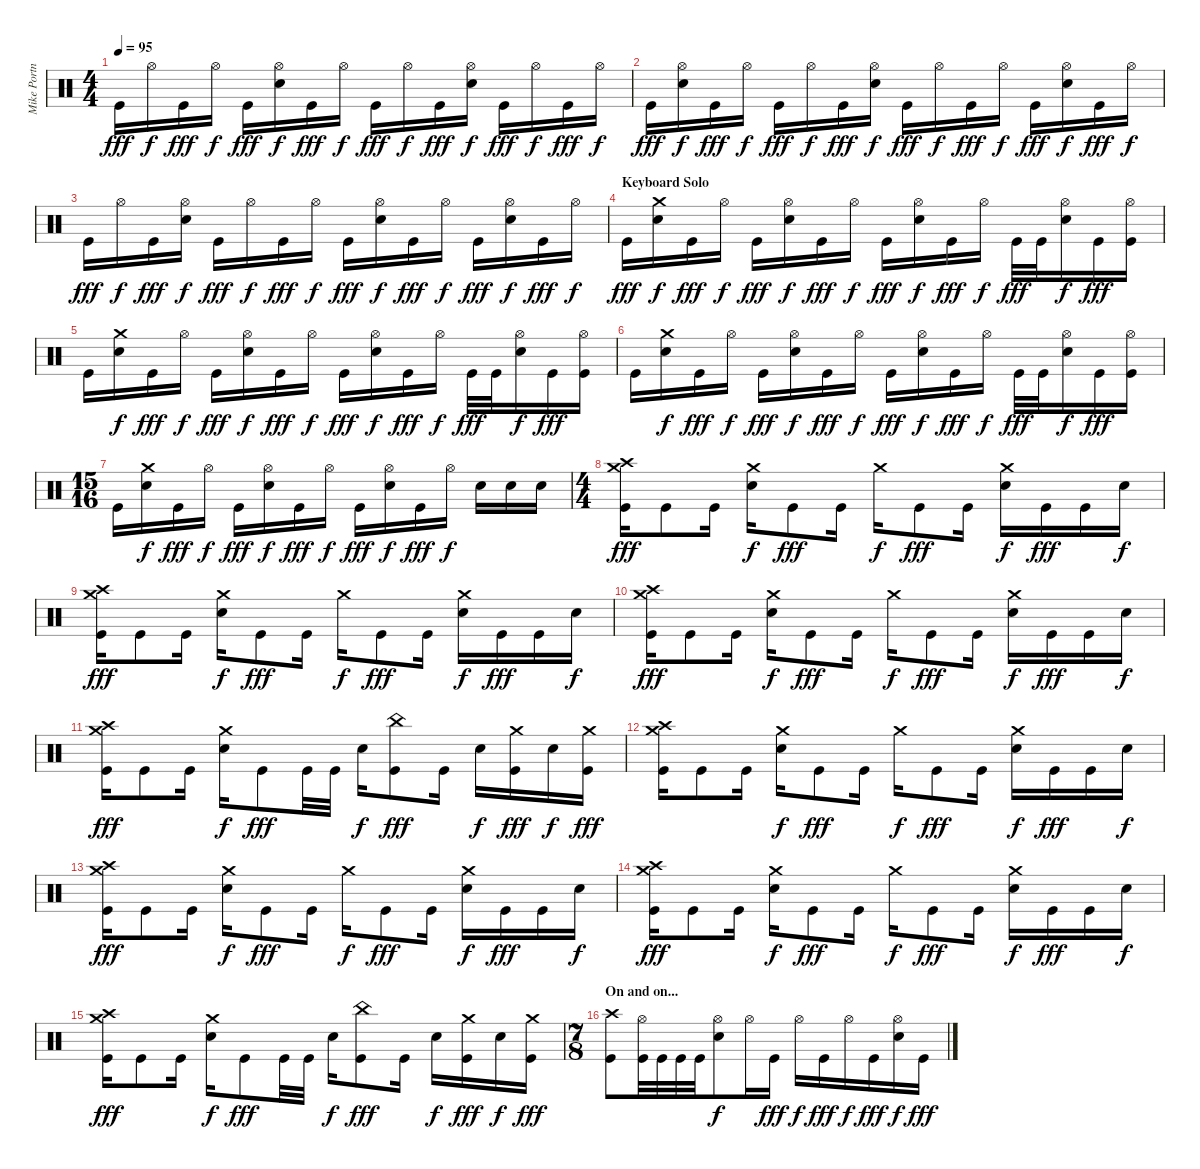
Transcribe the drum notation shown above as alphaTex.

\track ("Mike Portnoy" "Mike Portn") {instrument percussion}
\staff {score}
\articulation defaults
\ts (4 4)
\tempo 95
\clef neutral
\ks c "Kick (hit)".16{dy fff} "Hi-Hat (open)".16{dy f} "Kick (hit)".16{dy fff} "Hi-Hat (open)".16{dy f} "Kick (hit)".16{dy fff}
("Hi-Hat (open)" "Electric Snare (hit)").16{dy f} "Kick (hit)".16{dy fff} "Hi-Hat (open)".16{dy f} "Kick (hit)".16{dy fff} "Hi-Hat (open)".16{dy f} "Kick (hit)".16{dy fff} ("Hi-Hat (open)" "Electric Snare (hit)").16{dy f} "Kick (hit)".16{dy fff} "Hi-Hat (open)".16{dy f} "Kick (hit)".16{dy fff} "Hi-Hat (open)".16{dy f} |
"Kick (hit)".16{dy fff} ("Hi-Hat (open)" "Electric Snare (hit)").16{dy f} "Kick (hit)".16{dy fff} "Hi-Hat (open)".16{dy f} "Kick (hit)".16{dy fff} "Hi-Hat (open)".16{dy f} "Kick (hit)".16{dy fff} ("Hi-Hat (open)" "Electric Snare (hit)").16{dy f} "Kick (hit)".16{dy fff} "Hi-Hat (open)".16{dy f} "Kick (hit)".16{dy fff} "Hi-Hat (open)".16{dy f} "Kick (hit)".16{dy fff} ("Hi-Hat (open)" "Electric Snare (hit)").16{dy f} "Kick (hit)".16{dy fff} "Hi-Hat (open)".16{dy f} |
"Kick (hit)".16{dy fff} "Hi-Hat (open)".16{dy f} "Kick (hit)".16{dy fff} ("Hi-Hat (open)" "Electric Snare (hit)").16{dy f} "Kick (hit)".16{dy fff} "Hi-Hat (open)".16{dy f} "Kick (hit)".16{dy fff} "Hi-Hat (open)".16{dy f} "Kick (hit)".16{dy fff} ("Hi-Hat (open)" "Electric Snare (hit)").16{dy f} "Kick (hit)".16{dy fff} "Hi-Hat (open)".16{dy f} "Kick (hit)".16{dy fff} ("Hi-Hat (open)" "Electric Snare (hit)").16{dy f} "Kick (hit)".16{dy fff} "Hi-Hat (open)".16{dy f} |
\section ("" "Keyboard Solo")
"Kick (hit)".16{dy fff} ("Crash medium (hit)" "Electric Snare (hit)").16{dy f} "Kick (hit)".16{dy fff} "Hi-Hat (open)".16{dy f} "Kick (hit)".16{dy fff} ("Hi-Hat (open)" "Electric Snare (hit)").16{dy f} "Kick (hit)".16{dy fff} "Hi-Hat (open)".16{dy f} "Kick (hit)".16{dy fff} ("Hi-Hat (open)" "Electric Snare (hit)").16{dy f} "Kick (hit)".16{dy fff} "Hi-Hat (open)".16{dy f} "Kick (hit)".32{dy fff} "Kick (hit)".32 ("Hi-Hat (open)" "Electric Snare (hit)").16{dy f} "Kick (hit)".16{dy fff} ("Hi-Hat (open)" "Kick (hit)").16 |
"Kick (hit)".16 ("Crash medium (hit)" "Electric Snare (hit)").16{dy f} "Kick (hit)".16{dy fff} "Hi-Hat (open)".16{dy f} "Kick (hit)".16{dy fff} ("Hi-Hat (open)" "Electric Snare (hit)").16{dy f} "Kick (hit)".16{dy fff} "Hi-Hat (open)".16{dy f} "Kick (hit)".16{dy fff} ("Hi-Hat (open)" "Electric Snare (hit)").16{dy f} "Kick (hit)".16{dy fff} "Hi-Hat (open)".16{dy f} "Kick (hit)".32{dy fff} "Kick (hit)".32 ("Hi-Hat (open)" "Electric Snare (hit)").16{dy f} "Kick (hit)".16{dy fff} ("Hi-Hat (open)" "Kick (hit)").16 |
"Kick (hit)".16 ("Crash medium (hit)" "Electric Snare (hit)").16{dy f} "Kick (hit)".16{dy fff} "Hi-Hat (open)".16{dy f} "Kick (hit)".16{dy fff} ("Hi-Hat (open)" "Electric Snare (hit)").16{dy f} "Kick (hit)".16{dy fff} "Hi-Hat (open)".16{dy f} "Kick (hit)".16{dy fff} ("Hi-Hat (open)" "Electric Snare (hit)").16{dy f} "Kick (hit)".16{dy fff} "Hi-Hat (open)".16{dy f} "Kick (hit)".32{dy fff} "Kick (hit)".32 ("Hi-Hat (open)" "Electric Snare (hit)").16{dy f} "Kick (hit)".16{dy fff} ("Hi-Hat (open)" "Kick (hit)").16 |
\ts (15 16)
"Kick (hit)".16 ("Crash medium (hit)" "Electric Snare (hit)").16{dy f} "Kick (hit)".16{dy fff} "Hi-Hat (open)".16{dy f} "Kick (hit)".16{dy fff} ("Hi-Hat (open)" "Electric Snare (hit)").16{dy f} "Kick (hit)".16{dy fff} "Hi-Hat (open)".16{dy f} "Kick (hit)".16{dy fff} ("Hi-Hat (open)" "Electric Snare (hit)").16{dy f} "Kick (hit)".16{dy fff} "Hi-Hat (open)".16{dy f} "Electric Snare (hit)".16 "Electric Snare (hit)".16 "Electric Snare (hit)".16 |
\ts (4 4)
("Crash high (hit)" "Crash medium (hit)" "Kick (hit)").16{dy fff} "Kick (hit)".8 "Kick (hit)".16 ("Crash medium (hit)" "Electric Snare (hit)").16{dy f} "Kick (hit)".8{dy fff} "Kick (hit)".16 "Crash medium (hit)".16{dy f} "Kick (hit)".8{dy fff} "Kick (hit)".16 ("Crash medium (hit)" "Electric Snare (hit)").16{dy f} "Kick (hit)".16{dy fff} "Kick (hit)".16 "Electric Snare (hit)".16{dy f} |
("Crash high (hit)" "Crash medium (hit)" "Kick (hit)").16{dy fff} "Kick (hit)".8 "Kick (hit)".16 ("Crash medium (hit)" "Electric Snare (hit)").16{dy f} "Kick (hit)".8{dy fff} "Kick (hit)".16 "Crash medium (hit)".16{dy f} "Kick (hit)".8{dy fff} "Kick (hit)".16 ("Crash medium (hit)" "Electric Snare (hit)").16{dy f} "Kick (hit)".16{dy fff} "Kick (hit)".16 "Electric Snare (hit)".16{dy f} |
("Crash high (hit)" "Crash medium (hit)" "Kick (hit)").16{dy fff} "Kick (hit)".8 "Kick (hit)".16 ("Crash medium (hit)" "Electric Snare (hit)").16{dy f} "Kick (hit)".8{dy fff} "Kick (hit)".16 "Crash medium (hit)".16{dy f} "Kick (hit)".8{dy fff} "Kick (hit)".16 ("Crash medium (hit)" "Electric Snare (hit)").16{dy f} "Kick (hit)".16{dy fff} "Kick (hit)".16 "Electric Snare (hit)".16{dy f} |
("Crash high (hit)" "Crash medium (hit)" "Kick (hit)").16{dy fff} "Kick (hit)".8 "Kick (hit)".16 ("Crash medium (hit)" "Electric Snare (hit)").16{dy f} "Kick (hit)".8{dy fff} "Kick (hit)".32 "Kick (hit)".32 "Electric Snare (hit)".16{dy f} ("China (hit)" "Kick (hit)").8{dy fff} "Kick (hit)".16 "Electric Snare (hit)".16{dy f} ("Crash medium (hit)" "Kick (hit)").16{dy fff} "Electric Snare (hit)".16{dy f} ("Crash medium (hit)" "Kick (hit)").16{dy fff} |
("Crash high (hit)" "Crash medium (hit)" "Kick (hit)").16 "Kick (hit)".8 "Kick (hit)".16 ("Crash medium (hit)" "Electric Snare (hit)").16{dy f} "Kick (hit)".8{dy fff} "Kick (hit)".16 "Crash medium (hit)".16{dy f} "Kick (hit)".8{dy fff} "Kick (hit)".16 ("Crash medium (hit)" "Electric Snare (hit)").16{dy f} "Kick (hit)".16{dy fff} "Kick (hit)".16 "Electric Snare (hit)".16{dy f} |
("Crash high (hit)" "Crash medium (hit)" "Kick (hit)").16{dy fff} "Kick (hit)".8 "Kick (hit)".16 ("Crash medium (hit)" "Electric Snare (hit)").16{dy f} "Kick (hit)".8{dy fff} "Kick (hit)".16 "Crash medium (hit)".16{dy f} "Kick (hit)".8{dy fff} "Kick (hit)".16 ("Crash medium (hit)" "Electric Snare (hit)").16{dy f} "Kick (hit)".16{dy fff} "Kick (hit)".16 "Electric Snare (hit)".16{dy f} |
("Crash high (hit)" "Crash medium (hit)" "Kick (hit)").16{dy fff} "Kick (hit)".8 "Kick (hit)".16 ("Crash medium (hit)" "Electric Snare (hit)").16{dy f} "Kick (hit)".8{dy fff} "Kick (hit)".16 "Crash medium (hit)".16{dy f} "Kick (hit)".8{dy fff} "Kick (hit)".16 ("Crash medium (hit)" "Electric Snare (hit)").16{dy f} "Kick (hit)".16{dy fff} "Kick (hit)".16 "Electric Snare (hit)".16{dy f} |
("Crash high (hit)" "Crash medium (hit)" "Kick (hit)").16{dy fff} "Kick (hit)".8 "Kick (hit)".16 ("Crash medium (hit)" "Electric Snare (hit)").16{dy f} "Kick (hit)".8{dy fff} "Kick (hit)".32 "Kick (hit)".32 "Electric Snare (hit)".16{dy f} ("China (hit)" "Kick (hit)").8{dy fff} "Kick (hit)".16 "Electric Snare (hit)".16{dy f} ("Crash medium (hit)" "Kick (hit)").16{dy fff} "Electric Snare (hit)".16{dy f} ("Crash medium (hit)" "Kick (hit)").16{dy fff} |
\ts (7 8)
\section ("" "On and on...")
("Crash high (hit)" "Kick (hit)").8 ("Hi-Hat (open)" "Kick (hit)").32 "Kick (hit)".32 "Kick (hit)".32 "Kick (hit)".32 ("Hi-Hat (open)" "Electric Snare (hit)").8{dy f} "Hi-Hat (open)".16 "Kick (hit)".16{dy fff} "Hi-Hat (open)".16{dy f} "Kick (hit)".16{dy fff} "Hi-Hat (open)".16{dy f} "Kick (hit)".16{dy fff} ("Hi-Hat (open)" "Electric Snare (hit)").16{dy f} "Kick (hit)".16{dy fff}
